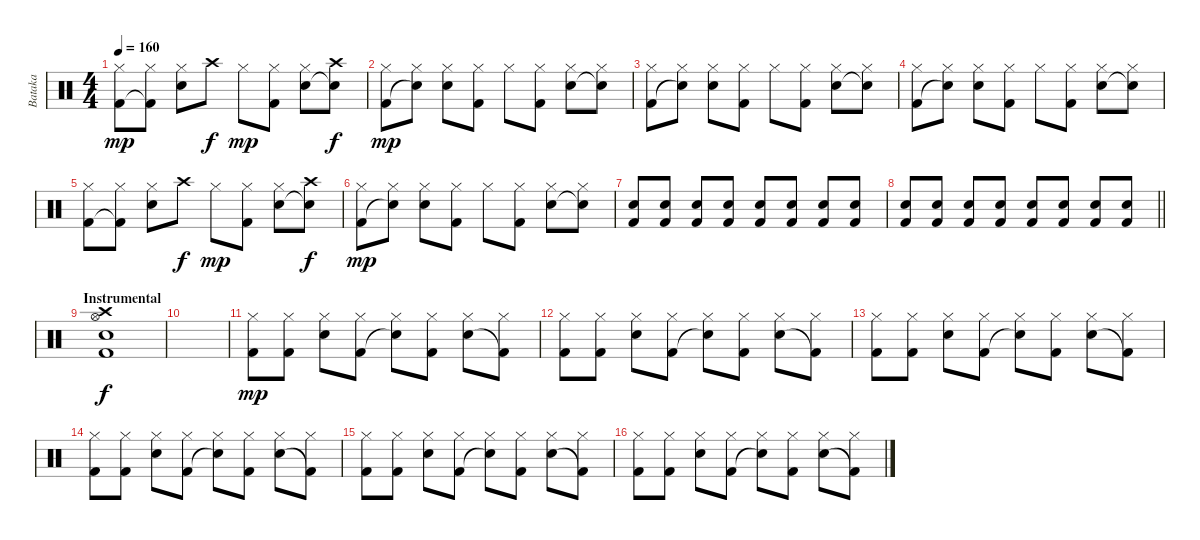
\track ("Bataka" "Bataka") {instrument percussion}
\staff {score}
\articulation defaults
\ts (4 4)
\tempo 160
\clef neutral
\ks c
("Hi-Hat (closed)" "Kick (hit) 2").8{dy mp} ("Hi-Hat (closed)" "Kick (hit) 2"{t}).8 ("Hi-Hat (closed)" "Electric Snare (hit)").8 "Crash high (hit)".8{dy f} "Hi-Hat (closed)".8{dy mp} ("Hi-Hat (closed)" "Kick (hit) 2").8 ("Hi-Hat (closed)" "Electric Snare (hit)").8 ("Crash high (hit)" "Snare (hit)"{t}).8{dy f} |
("Hi-Hat (closed)" "Kick (hit) 2").8{dy mp} ("Hi-Hat (closed)" "Snare (hit)"{t}).8 ("Hi-Hat (closed)" "Electric Snare (hit)").8 ("Hi-Hat (closed)" "Kick (hit) 2").8 "Hi-Hat (closed)".8 ("Hi-Hat (closed)" "Kick (hit) 2").8 ("Hi-Hat (closed)" "Electric Snare (hit)").8 ("Hi-Hat (closed)" "Snare (hit)"{t}).8 |
("Hi-Hat (closed)" "Kick (hit) 2").8 ("Hi-Hat (closed)" "Snare (hit)"{t}).8 ("Hi-Hat (closed)" "Electric Snare (hit)").8 ("Hi-Hat (closed)" "Kick (hit) 2").8 "Hi-Hat (closed)".8 ("Hi-Hat (closed)" "Kick (hit) 2").8 ("Hi-Hat (closed)" "Electric Snare (hit)").8 ("Hi-Hat (closed)" "Snare (hit)"{t}).8 |
("Hi-Hat (closed)" "Kick (hit) 2").8 ("Hi-Hat (closed)" "Snare (hit)"{t}).8 ("Hi-Hat (closed)" "Electric Snare (hit)").8 ("Hi-Hat (closed)" "Kick (hit) 2").8 "Hi-Hat (closed)".8 ("Hi-Hat (closed)" "Kick (hit) 2").8 ("Hi-Hat (closed)" "Electric Snare (hit)").8 ("Hi-Hat (closed)" "Snare (hit)"{t}).8 |
("Hi-Hat (closed)" "Kick (hit) 2").8 ("Hi-Hat (closed)" "Kick (hit) 2"{t}).8 ("Hi-Hat (closed)" "Electric Snare (hit)").8 "Crash high (hit)".8{dy f} "Hi-Hat (closed)".8{dy mp} ("Hi-Hat (closed)" "Kick (hit) 2").8 ("Hi-Hat (closed)" "Electric Snare (hit)").8 ("Crash high (hit)" "Snare (hit)"{t}).8{dy f} |
("Hi-Hat (closed)" "Kick (hit) 2").8{dy mp} ("Hi-Hat (closed)" "Snare (hit)"{t}).8 ("Hi-Hat (closed)" "Electric Snare (hit)").8 ("Hi-Hat (closed)" "Kick (hit) 2").8 "Hi-Hat (closed)".8 ("Hi-Hat (closed)" "Kick (hit) 2").8 ("Hi-Hat (closed)" "Electric Snare (hit)").8 ("Hi-Hat (closed)" "Snare (hit)"{t}).8 |
("Kick (hit) 2" "Electric Snare (hit)").8 ("Kick (hit) 2" "Electric Snare (hit)").8 ("Kick (hit) 2" "Electric Snare (hit)").8 ("Electric Snare (hit)" "Kick (hit) 2").8 ("Kick (hit) 2" "Electric Snare (hit)").8 ("Kick (hit) 2" "Electric Snare (hit)").8 ("Electric Snare (hit)" "Kick (hit) 2").8 ("Kick (hit) 2" "Electric Snare (hit)").8 |
\barLineRight lightlight
("Kick (hit) 2" "Electric Snare (hit)").8 ("Kick (hit) 2" "Electric Snare (hit)").8 ("Kick (hit) 2" "Electric Snare (hit)").8 ("Electric Snare (hit)" "Kick (hit) 2").8 ("Kick (hit) 2" "Electric Snare (hit)").8 ("Kick (hit) 2" "Electric Snare (hit)").8 ("Electric Snare (hit)" "Kick (hit) 2").8 ("Kick (hit) 2" "Electric Snare (hit)").8 |
\section ("" "Instrumental")
("Hi-Hat (open)" "Crash high (hit)" "Kick (hit) 2" "Electric Snare (hit)").1{dy f} |
|
("Hi-Hat (closed)" "Kick (hit) 2").8{dy mp} ("Hi-Hat (closed)" "Kick (hit) 2").8 ("Hi-Hat (closed)" "Electric Snare (hit)").8 ("Hi-Hat (closed)" "Kick (hit) 2").8 ("Hi-Hat (closed)" "Electric Snare (hit)"{t}).8 ("Hi-Hat (closed)" "Kick (hit) 2").8 ("Hi-Hat (closed)" "Electric Snare (hit)").8 ("Hi-Hat (closed)" "Kick (hit) 2"{t}).8 |
("Hi-Hat (closed)" "Kick (hit) 2").8 ("Hi-Hat (closed)" "Kick (hit) 2").8 ("Hi-Hat (closed)" "Electric Snare (hit)").8 ("Hi-Hat (closed)" "Kick (hit) 2").8 ("Hi-Hat (closed)" "Electric Snare (hit)"{t}).8 ("Hi-Hat (closed)" "Kick (hit) 2").8 ("Hi-Hat (closed)" "Electric Snare (hit)").8 ("Hi-Hat (closed)" "Kick (hit) 2"{t}).8 |
("Hi-Hat (closed)" "Kick (hit) 2").8 ("Hi-Hat (closed)" "Kick (hit) 2").8 ("Hi-Hat (closed)" "Electric Snare (hit)").8 ("Hi-Hat (closed)" "Kick (hit) 2").8 ("Hi-Hat (closed)" "Electric Snare (hit)"{t}).8 ("Hi-Hat (closed)" "Kick (hit) 2").8 ("Hi-Hat (closed)" "Electric Snare (hit)").8 ("Hi-Hat (closed)" "Kick (hit) 2"{t}).8 |
("Hi-Hat (closed)" "Kick (hit) 2").8 ("Hi-Hat (closed)" "Kick (hit) 2").8 ("Hi-Hat (closed)" "Electric Snare (hit)").8 ("Hi-Hat (closed)" "Kick (hit) 2").8 ("Hi-Hat (closed)" "Electric Snare (hit)"{t}).8 ("Hi-Hat (closed)" "Kick (hit) 2").8 ("Hi-Hat (closed)" "Electric Snare (hit)").8 ("Hi-Hat (closed)" "Kick (hit) 2"{t}).8 |
("Hi-Hat (closed)" "Kick (hit) 2").8 ("Hi-Hat (closed)" "Kick (hit) 2").8 ("Hi-Hat (closed)" "Electric Snare (hit)").8 ("Hi-Hat (closed)" "Kick (hit) 2").8 ("Hi-Hat (closed)" "Electric Snare (hit)"{t}).8 ("Hi-Hat (closed)" "Kick (hit) 2").8 ("Hi-Hat (closed)" "Electric Snare (hit)").8 ("Hi-Hat (closed)" "Kick (hit) 2"{t}).8 |
("Hi-Hat (closed)" "Kick (hit) 2").8 ("Hi-Hat (closed)" "Kick (hit) 2").8 ("Hi-Hat (closed)" "Electric Snare (hit)").8 ("Hi-Hat (closed)" "Kick (hit) 2").8 ("Hi-Hat (closed)" "Electric Snare (hit)"{t}).8 ("Hi-Hat (closed)" "Kick (hit) 2").8 ("Hi-Hat (closed)" "Electric Snare (hit)").8 ("Hi-Hat (closed)" "Kick (hit) 2"{t}).8
